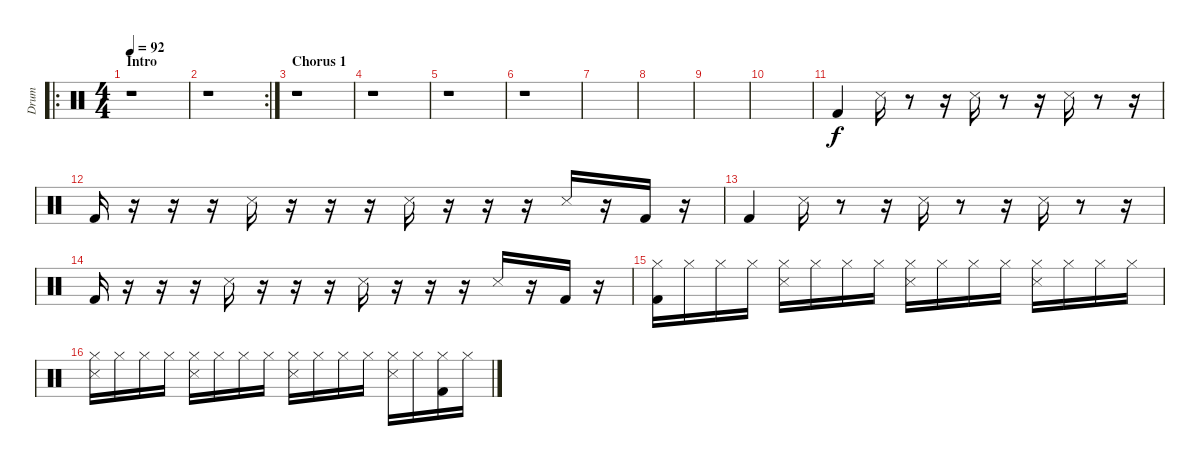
\track ("Drum" "Drum") {instrument percussion}
\staff {score}
\articulation defaults
\ro
\ts (4 4)
\section ("" "Intro")
\tempo 92
\clef neutral
\ks c
r.1{dy f} |
\rc 2
r.1 |
\section ("" "Chorus 1")
r.1 |
r.1 |
r.1 |
r.1 |
|
|
|
|
"Kick (hit) 2".4 "Snare (side stick) 3".16 r.8 r.16 "Snare (side stick) 3".16 r.8 r.16 "Snare (side stick) 3".16 r.8 r.16 |
"Kick (hit) 2".16 r.16 r.16 r.16 "Snare (side stick) 3".16 r.16 r.16 r.16 "Snare (side stick) 3".16 r.16 r.16 r.16 "Snare (side stick) 3".16 r.16 "Kick (hit) 2".16 r.16 |
"Kick (hit) 2".4 "Snare (side stick) 3".16 r.8 r.16 "Snare (side stick) 3".16 r.8 r.16 "Snare (side stick) 3".16 r.8 r.16 |
"Kick (hit) 2".16 r.16 r.16 r.16 "Snare (side stick) 3".16 r.16 r.16 r.16 "Snare (side stick) 3".16 r.16 r.16 r.16 "Snare (side stick) 3".16 r.16 "Kick (hit) 2".16 r.16 |
("Hi-Hat (closed)" "Kick (hit) 2").16 "Hi-Hat (closed)".16 "Hi-Hat (closed)".16 "Hi-Hat (closed)".16 ("Hi-Hat (closed)" "Snare (side stick) 3").16 "Hi-Hat (closed)".16 "Hi-Hat (closed)".16 "Hi-Hat (closed)".16 ("Hi-Hat (closed)" "Snare (side stick) 3").16 "Hi-Hat (closed)".16 "Hi-Hat (closed)".16 "Hi-Hat (closed)".16 ("Hi-Hat (closed)" "Snare (side stick) 3").16 "Hi-Hat (closed)".16 "Hi-Hat (closed)".16 "Hi-Hat (closed)".16 |
("Hi-Hat (closed)" "Snare (side stick) 3").16 "Hi-Hat (closed)".16 "Hi-Hat (closed)".16 "Hi-Hat (closed)".16 ("Hi-Hat (closed)" "Snare (side stick) 3").16 "Hi-Hat (closed)".16 "Hi-Hat (closed)".16 "Hi-Hat (closed)".16 ("Hi-Hat (closed)" "Snare (side stick) 3").16 "Hi-Hat (closed)".16 "Hi-Hat (closed)".16 "Hi-Hat (closed)".16 ("Hi-Hat (closed)" "Snare (side stick) 3").16 "Hi-Hat (closed)".16 ("Hi-Hat (closed)" "Kick (hit) 2").16 "Hi-Hat (closed)".16
